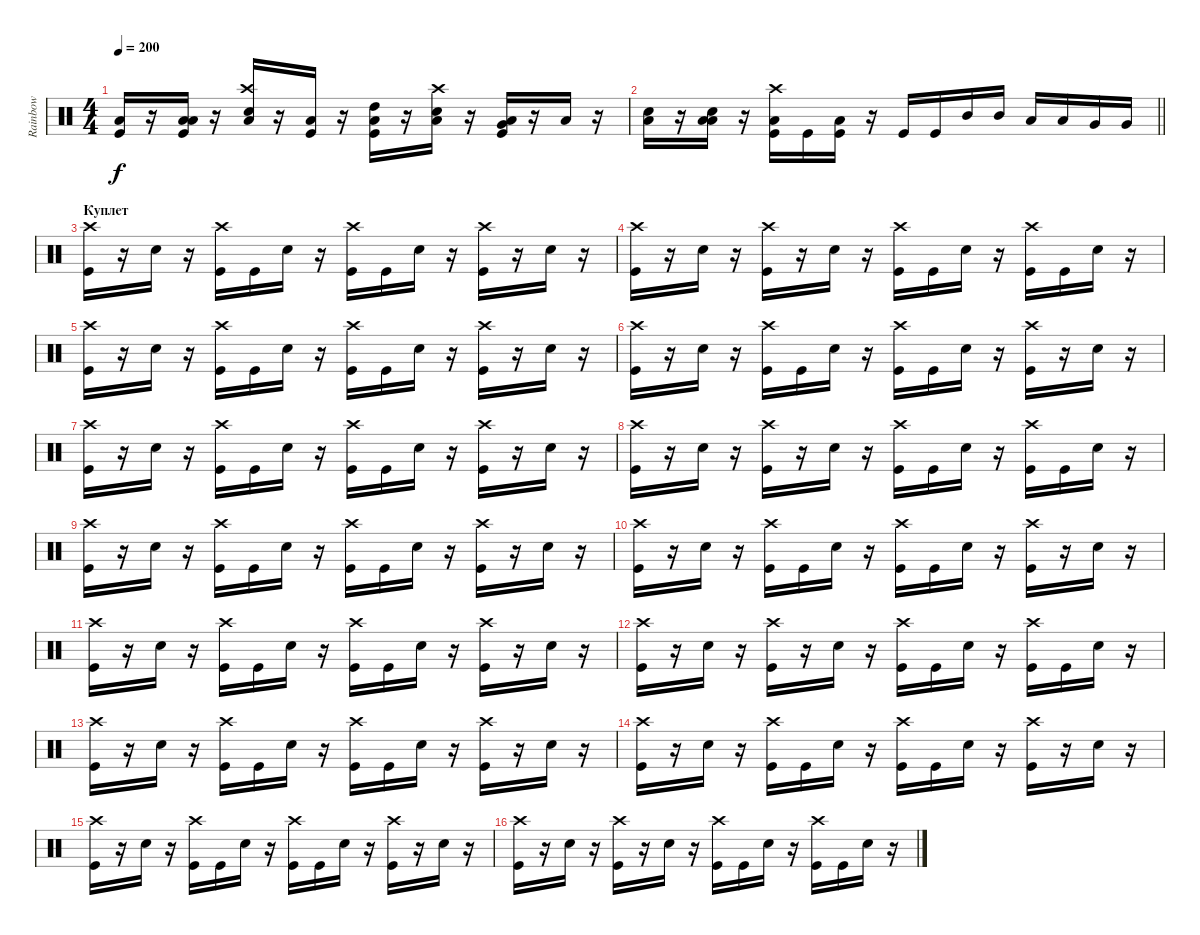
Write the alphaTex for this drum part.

\track ("Rainbow" "Rainbow") {instrument percussion}
\staff {score}
\articulation defaults
\ts (4 4)
\tempo 200
\clef neutral
\ks c
("Low Floor Tom (hit)" "Kick (hit)").16{dy f} r.16 ("Low Floor Tom (hit)" "Low Tom (hit)" "Kick (hit)").16 r.16 ("Crash high (hit)" "Low Floor Tom (hit)" "Electric Snare (hit)").16 r.16 ("Low Floor Tom (hit)" "Kick (hit)").16 r.16 ("Low Floor Tom (hit)" "High Tom (hit)" "Kick (hit)").16 r.16 ("Crash high (hit)" "Low Floor Tom (hit)" "Electric Snare (hit)").16 r.16 ("Low Floor Tom (hit)" "Very Low Tom (hit)" "Kick (hit)").16 r.16 "Low Floor Tom (hit)".16 r.16 |
\barLineRight lightlight
("Low Floor Tom (hit)" "Electric Snare (hit)").16 r.16 ("Low Floor Tom (hit)" "Low Tom (hit)" "Electric Snare (hit)").16 r.16 ("Crash high (hit)" "Low Floor Tom (hit)" "Kick (hit)").16 "Kick (hit)".16 ("Low Floor Tom (hit)" "Kick (hit)").16 r.16 "Kick (hit)".16 "Kick (hit)".16 "Mid Tom (hit)".16 "Mid Tom (hit)".16 "Low Tom (hit)".16 "Low Tom (hit)".16 "Very Low Tom (hit)".16 "Very Low Tom (hit)".16 |
\section ("" "Куплет")
("Crash high (hit)" "Kick (hit)").16 r.16 "Electric Snare (hit)".16 r.16 ("Crash high (hit)" "Kick (hit)").16 "Kick (hit)".16 "Electric Snare (hit)".16 r.16 ("Crash high (hit)" "Kick (hit)").16 "Kick (hit)".16 "Electric Snare (hit)".16 r.16 ("Crash high (hit)" "Kick (hit)").16 r.16 "Electric Snare (hit)".16 r.16 |
("Crash high (hit)" "Kick (hit)").16 r.16 "Electric Snare (hit)".16 r.16 ("Crash high (hit)" "Kick (hit)").16 r.16 "Electric Snare (hit)".16 r.16 ("Crash high (hit)" "Kick (hit)").16 "Kick (hit)".16 "Electric Snare (hit)".16 r.16 ("Crash high (hit)" "Kick (hit)").16 "Kick (hit)".16 "Electric Snare (hit)".16 r.16 |
("Crash high (hit)" "Kick (hit)").16 r.16 "Electric Snare (hit)".16 r.16 ("Crash high (hit)" "Kick (hit)").16 "Kick (hit)".16 "Electric Snare (hit)".16 r.16 ("Crash high (hit)" "Kick (hit)").16 "Kick (hit)".16 "Electric Snare (hit)".16 r.16 ("Crash high (hit)" "Kick (hit)").16 r.16 "Electric Snare (hit)".16 r.16 |
("Crash high (hit)" "Kick (hit)").16 r.16 "Electric Snare (hit)".16 r.16 ("Crash high (hit)" "Kick (hit)").16 "Kick (hit)".16 "Electric Snare (hit)".16 r.16 ("Crash high (hit)" "Kick (hit)").16 "Kick (hit)".16 "Electric Snare (hit)".16 r.16 ("Crash high (hit)" "Kick (hit)").16 r.16 "Electric Snare (hit)".16 r.16 |
("Crash high (hit)" "Kick (hit)").16 r.16 "Electric Snare (hit)".16 r.16 ("Crash high (hit)" "Kick (hit)").16 "Kick (hit)".16 "Electric Snare (hit)".16 r.16 ("Crash high (hit)" "Kick (hit)").16 "Kick (hit)".16 "Electric Snare (hit)".16 r.16 ("Crash high (hit)" "Kick (hit)").16 r.16 "Electric Snare (hit)".16 r.16 |
("Crash high (hit)" "Kick (hit)").16 r.16 "Electric Snare (hit)".16 r.16 ("Crash high (hit)" "Kick (hit)").16 r.16 "Electric Snare (hit)".16 r.16 ("Crash high (hit)" "Kick (hit)").16 "Kick (hit)".16 "Electric Snare (hit)".16 r.16 ("Crash high (hit)" "Kick (hit)").16 "Kick (hit)".16 "Electric Snare (hit)".16 r.16 |
("Crash high (hit)" "Kick (hit)").16 r.16 "Electric Snare (hit)".16 r.16 ("Crash high (hit)" "Kick (hit)").16 "Kick (hit)".16 "Electric Snare (hit)".16 r.16 ("Crash high (hit)" "Kick (hit)").16 "Kick (hit)".16 "Electric Snare (hit)".16 r.16 ("Crash high (hit)" "Kick (hit)").16 r.16 "Electric Snare (hit)".16 r.16 |
("Crash high (hit)" "Kick (hit)").16 r.16 "Electric Snare (hit)".16 r.16 ("Crash high (hit)" "Kick (hit)").16 "Kick (hit)".16 "Electric Snare (hit)".16 r.16 ("Crash high (hit)" "Kick (hit)").16 "Kick (hit)".16 "Electric Snare (hit)".16 r.16 ("Crash high (hit)" "Kick (hit)").16 r.16 "Electric Snare (hit)".16 r.16 |
("Crash high (hit)" "Kick (hit)").16 r.16 "Electric Snare (hit)".16 r.16 ("Crash high (hit)" "Kick (hit)").16 "Kick (hit)".16 "Electric Snare (hit)".16 r.16 ("Crash high (hit)" "Kick (hit)").16 "Kick (hit)".16 "Electric Snare (hit)".16 r.16 ("Crash high (hit)" "Kick (hit)").16 r.16 "Electric Snare (hit)".16 r.16 |
("Crash high (hit)" "Kick (hit)").16 r.16 "Electric Snare (hit)".16 r.16 ("Crash high (hit)" "Kick (hit)").16 r.16 "Electric Snare (hit)".16 r.16 ("Crash high (hit)" "Kick (hit)").16 "Kick (hit)".16 "Electric Snare (hit)".16 r.16 ("Crash high (hit)" "Kick (hit)").16 "Kick (hit)".16 "Electric Snare (hit)".16 r.16 |
("Crash high (hit)" "Kick (hit)").16 r.16 "Electric Snare (hit)".16 r.16 ("Crash high (hit)" "Kick (hit)").16 "Kick (hit)".16 "Electric Snare (hit)".16 r.16 ("Crash high (hit)" "Kick (hit)").16 "Kick (hit)".16 "Electric Snare (hit)".16 r.16 ("Crash high (hit)" "Kick (hit)").16 r.16 "Electric Snare (hit)".16 r.16 |
("Crash high (hit)" "Kick (hit)").16 r.16 "Electric Snare (hit)".16 r.16 ("Crash high (hit)" "Kick (hit)").16 "Kick (hit)".16 "Electric Snare (hit)".16 r.16 ("Crash high (hit)" "Kick (hit)").16 "Kick (hit)".16 "Electric Snare (hit)".16 r.16 ("Crash high (hit)" "Kick (hit)").16 r.16 "Electric Snare (hit)".16 r.16 |
("Crash high (hit)" "Kick (hit)").16 r.16 "Electric Snare (hit)".16 r.16 ("Crash high (hit)" "Kick (hit)").16 "Kick (hit)".16 "Electric Snare (hit)".16 r.16 ("Crash high (hit)" "Kick (hit)").16 "Kick (hit)".16 "Electric Snare (hit)".16 r.16 ("Crash high (hit)" "Kick (hit)").16 r.16 "Electric Snare (hit)".16 r.16 |
("Crash high (hit)" "Kick (hit)").16 r.16 "Electric Snare (hit)".16 r.16 ("Crash high (hit)" "Kick (hit)").16 r.16 "Electric Snare (hit)".16 r.16 ("Crash high (hit)" "Kick (hit)").16 "Kick (hit)".16 "Electric Snare (hit)".16 r.16 ("Crash high (hit)" "Kick (hit)").16 "Kick (hit)".16 "Electric Snare (hit)".16 r.16
